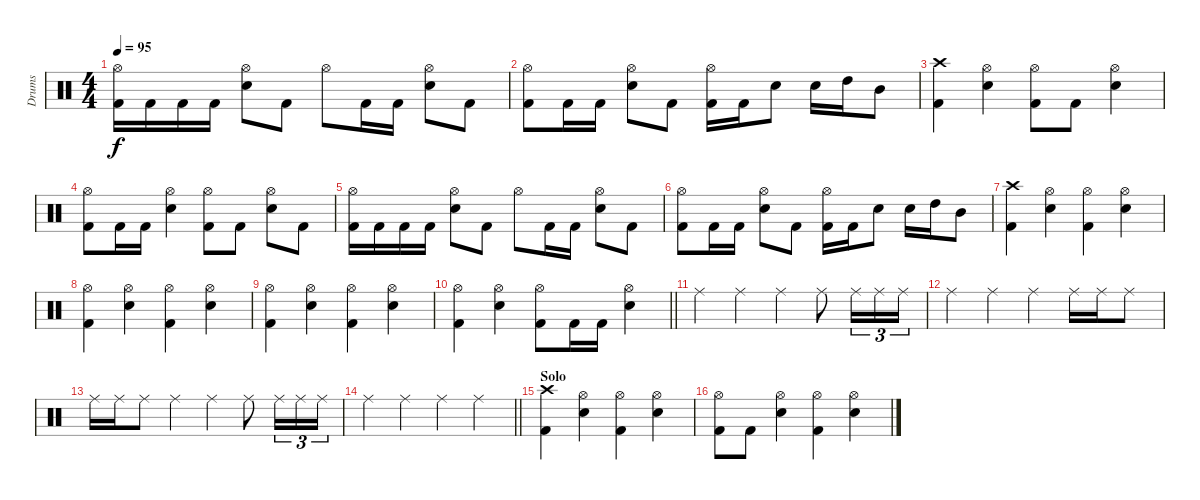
\track ("Drums" "Drums") {instrument percussion}
\staff {score}
\articulation defaults
\ts (4 4)
\tempo 95
\clef neutral
\ks c
("Hi-Hat (open)" "Kick (hit) 2").16{dy f} "Kick (hit) 2".16 "Kick (hit) 2".16 "Kick (hit) 2".16 ("Hi-Hat (open)" "Electric Snare (hit)").8 "Kick (hit) 2".8 "Hi-Hat (open)".8 "Kick (hit) 2".16 "Kick (hit) 2".16 ("Hi-Hat (open)" "Electric Snare (hit)").8 "Kick (hit) 2".8 |
("Hi-Hat (open)" "Kick (hit) 2").8 "Kick (hit) 2".16 "Kick (hit) 2".16 ("Hi-Hat (open)" "Electric Snare (hit)").8 "Kick (hit) 2".8 ("Hi-Hat (open)" "Kick (hit) 2").16 "Kick (hit) 2".16 "Electric Snare (hit)".8 "Electric Snare (hit)".16 "High Tom (hit)".16 "Mid Tom (hit)".8 |
("Crash high (hit)" "Kick (hit) 2").4 ("Hi-Hat (open)" "Electric Snare (hit)").4 ("Hi-Hat (open)" "Kick (hit) 2").8 "Kick (hit) 2".8 ("Hi-Hat (open)" "Electric Snare (hit)").4 |
("Hi-Hat (open)" "Kick (hit) 2").8 "Kick (hit) 2".16 "Kick (hit) 2".16 ("Hi-Hat (open)" "Electric Snare (hit)").4 ("Hi-Hat (open)" "Kick (hit) 2").8 "Kick (hit) 2".8 ("Hi-Hat (open)" "Electric Snare (hit)").8 "Kick (hit) 2".8 |
("Hi-Hat (open)" "Kick (hit) 2").16 "Kick (hit) 2".16 "Kick (hit) 2".16 "Kick (hit) 2".16 ("Hi-Hat (open)" "Electric Snare (hit)").8 "Kick (hit) 2".8 "Hi-Hat (open)".8 "Kick (hit) 2".16 "Kick (hit) 2".16 ("Hi-Hat (open)" "Electric Snare (hit)").8 "Kick (hit) 2".8 |
("Hi-Hat (open)" "Kick (hit) 2").8 "Kick (hit) 2".16 "Kick (hit) 2".16 ("Hi-Hat (open)" "Electric Snare (hit)").8 "Kick (hit) 2".8 ("Hi-Hat (open)" "Kick (hit) 2").16 "Kick (hit) 2".16 "Electric Snare (hit)".8 "Electric Snare (hit)".16 "High Tom (hit)".16 "Mid Tom (hit)".8 |
("Crash high (hit)" "Kick (hit) 2").4 ("Hi-Hat (open)" "Electric Snare (hit)").4 ("Hi-Hat (open)" "Kick (hit) 2").4 ("Hi-Hat (open)" "Electric Snare (hit)").4 |
("Hi-Hat (open)" "Kick (hit) 2").4 ("Hi-Hat (open)" "Electric Snare (hit)").4 ("Hi-Hat (open)" "Kick (hit) 2").4 ("Hi-Hat (open)" "Electric Snare (hit)").4 |
("Hi-Hat (open)" "Kick (hit) 2").4 ("Hi-Hat (open)" "Electric Snare (hit)").4 ("Hi-Hat (open)" "Kick (hit) 2").4 ("Hi-Hat (open)" "Electric Snare (hit)").4 |
\barLineRight lightlight
("Hi-Hat (open)" "Kick (hit) 2").4 ("Hi-Hat (open)" "Electric Snare (hit)").4 ("Hi-Hat (open)" "Kick (hit) 2").8 "Kick (hit) 2".16 "Kick (hit) 2".16 ("Hi-Hat (open)" "Electric Snare (hit)").4 |
"Ride (middle)".4 "Ride (middle)".4 "Ride (middle)".4 "Ride (middle)".8 "Ride (middle)".16{tu (3 2)} "Ride (middle)".16{tu (3 2)} "Ride (middle)".16{tu (3 2)} |
"Ride (middle)".4 "Ride (middle)".4 "Ride (middle)".4 "Ride (middle)".16 "Ride (middle)".16 "Ride (middle)".8 |
"Ride (middle)".16 "Ride (middle)".16 "Ride (middle)".8 "Ride (middle)".4 "Ride (middle)".4 "Ride (middle)".8 "Ride (middle)".16{tu (3 2)} "Ride (middle)".16{tu (3 2)} "Ride (middle)".16{tu (3 2)} |
\barLineRight lightlight "Ride (middle)".4 "Ride (middle)".4 "Ride (middle)".4 "Ride (middle)".4
|
\section ("" "Solo")
("Crash high (hit)" "Kick (hit) 2").4 ("Hi-Hat (open)" "Electric Snare (hit)").4 ("Hi-Hat (open)" "Kick (hit) 2").4 ("Hi-Hat (open)" "Electric Snare (hit)").4 |
("Hi-Hat (open)" "Kick (hit) 2").8 "Kick (hit) 2".8 ("Hi-Hat (open)" "Electric Snare (hit)").4 ("Hi-Hat (open)" "Kick (hit) 2").4 ("Hi-Hat (open)" "Electric Snare (hit)").4
